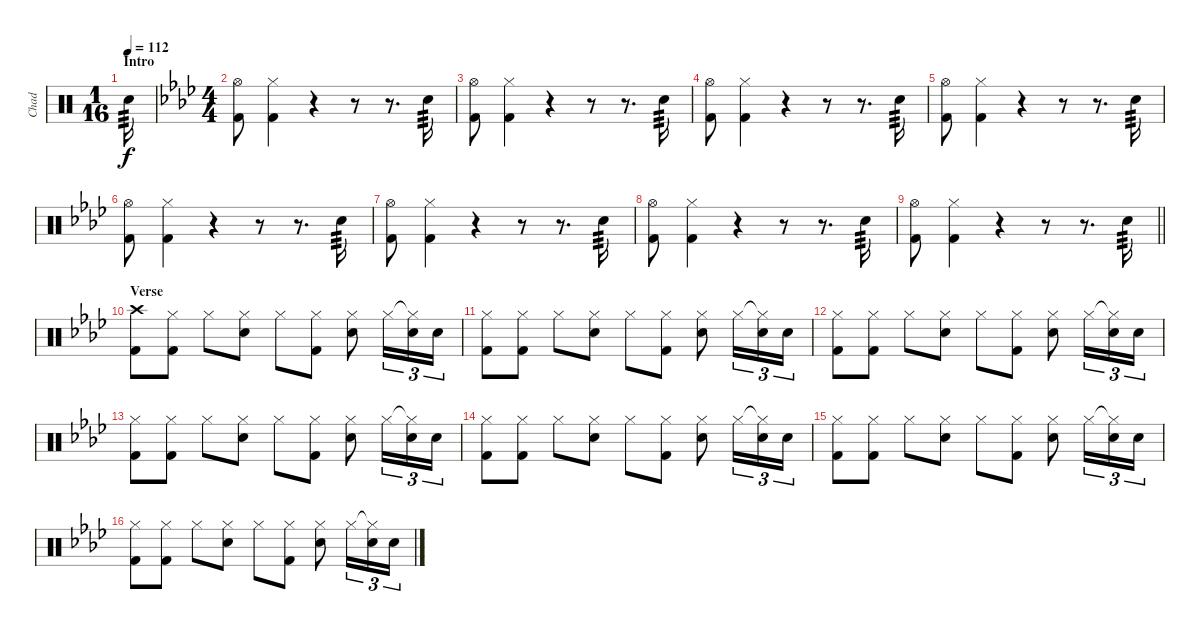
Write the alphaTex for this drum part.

\track ("Chad" "Chad") {instrument percussion}
\staff {score}
\articulation defaults
\ts (1 16)
\section ("" "Intro")
\tempo 112
\clef neutral
\ks c "Snare (hit) 2".16{tp 3 dy f}
|
\ts (4 4)
\ks ab
("Hi-Hat (open)" "Kick (hit) 2").8 ("Hi-Hat (closed)" "Kick (hit) 2").4 r.4 r.8 r.8{d} "Snare (hit) 2".16{tp 3} |
("Hi-Hat (open)" "Kick (hit) 2").8 ("Hi-Hat (closed)" "Kick (hit) 2").4 r.4 r.8 r.8{d} "Snare (hit) 2".16{tp 3} |
("Hi-Hat (open)" "Kick (hit) 2").8 ("Hi-Hat (closed)" "Kick (hit) 2").4 r.4 r.8 r.8{d} "Snare (hit) 2".16{tp 3} |
("Hi-Hat (open)" "Kick (hit) 2").8 ("Hi-Hat (closed)" "Kick (hit) 2").4 r.4 r.8 r.8{d} "Snare (hit) 2".16{tp 3} |
("Hi-Hat (open)" "Kick (hit) 2").8 ("Hi-Hat (closed)" "Kick (hit) 2").4 r.4 r.8 r.8{d} "Snare (hit) 2".16{tp 3} |
("Hi-Hat (open)" "Kick (hit) 2").8 ("Hi-Hat (closed)" "Kick (hit) 2").4 r.4 r.8 r.8{d} "Snare (hit) 2".16{tp 3} |
("Hi-Hat (open)" "Kick (hit) 2").8 ("Hi-Hat (closed)" "Kick (hit) 2").4 r.4 r.8 r.8{d} "Snare (hit) 2".16{tp 3} |
\barLineRight lightlight
("Hi-Hat (open)" "Kick (hit) 2").8 ("Hi-Hat (closed)" "Kick (hit) 2").4 r.4 r.8 r.8{d} "Snare (hit) 2".16{tp 3} |
\section ("" "Verse")
("Crash high (hit)" "Kick (hit) 2").8 ("Hi-Hat (closed)" "Kick (hit) 2").8 "Hi-Hat (closed)".8 ("Hi-Hat (closed)" "Snare (hit) 2").8 "Hi-Hat (closed)".8 ("Hi-Hat (closed)" "Kick (hit) 2").8 ("Hi-Hat (closed)" "Snare (hit) 2").8 "Hi-Hat (closed)".16{tu (3 2)} ("Hi-Hat (closed)"{t} "Snare (hit) 2").16{tu (3 2)} "Snare (hit) 2".16{tu (3 2)} |
("Hi-Hat (closed)" "Kick (hit) 2").8 ("Hi-Hat (closed)" "Kick (hit) 2").8 "Hi-Hat (closed)".8 ("Hi-Hat (closed)" "Snare (hit) 2").8 "Hi-Hat (closed)".8 ("Hi-Hat (closed)" "Kick (hit) 2").8 ("Hi-Hat (closed)" "Snare (hit) 2").8 "Hi-Hat (closed)".16{tu (3 2)} ("Hi-Hat (closed)"{t} "Snare (hit) 2").16{tu (3 2)} "Snare (hit) 2".16{tu (3 2)} |
("Hi-Hat (closed)" "Kick (hit) 2").8 ("Hi-Hat (closed)" "Kick (hit) 2").8 "Hi-Hat (closed)".8 ("Hi-Hat (closed)" "Snare (hit) 2").8 "Hi-Hat (closed)".8 ("Hi-Hat (closed)" "Kick (hit) 2").8 ("Hi-Hat (closed)" "Snare (hit) 2").8 "Hi-Hat (closed)".16{tu (3 2)} ("Hi-Hat (closed)"{t} "Snare (hit) 2").16{tu (3 2)} "Snare (hit) 2".16{tu (3 2)} |
("Hi-Hat (closed)" "Kick (hit) 2").8 ("Hi-Hat (closed)" "Kick (hit) 2").8 "Hi-Hat (closed)".8 ("Hi-Hat (closed)" "Snare (hit) 2").8 "Hi-Hat (closed)".8 ("Hi-Hat (closed)" "Kick (hit) 2").8 ("Hi-Hat (closed)" "Snare (hit) 2").8 "Hi-Hat (closed)".16{tu (3 2)} ("Hi-Hat (closed)"{t} "Snare (hit) 2").16{tu (3 2)} "Snare (hit) 2".16{tu (3 2)} |
("Hi-Hat (closed)" "Kick (hit) 2").8 ("Hi-Hat (closed)" "Kick (hit) 2").8 "Hi-Hat (closed)".8 ("Hi-Hat (closed)" "Snare (hit) 2").8 "Hi-Hat (closed)".8 ("Hi-Hat (closed)" "Kick (hit) 2").8 ("Hi-Hat (closed)" "Snare (hit) 2").8 "Hi-Hat (closed)".16{tu (3 2)} ("Hi-Hat (closed)"{t} "Snare (hit) 2").16{tu (3 2)} "Snare (hit) 2".16{tu (3 2)} |
("Hi-Hat (closed)" "Kick (hit) 2").8 ("Hi-Hat (closed)" "Kick (hit) 2").8 "Hi-Hat (closed)".8 ("Hi-Hat (closed)" "Snare (hit) 2").8 "Hi-Hat (closed)".8 ("Hi-Hat (closed)" "Kick (hit) 2").8 ("Hi-Hat (closed)" "Snare (hit) 2").8 "Hi-Hat (closed)".16{tu (3 2)} ("Hi-Hat (closed)"{t} "Snare (hit) 2").16{tu (3 2)} "Snare (hit) 2".16{tu (3 2)} |
("Hi-Hat (closed)" "Kick (hit) 2").8 ("Hi-Hat (closed)" "Kick (hit) 2").8 "Hi-Hat (closed)".8 ("Hi-Hat (closed)" "Snare (hit) 2").8 "Hi-Hat (closed)".8 ("Hi-Hat (closed)" "Kick (hit) 2").8 ("Hi-Hat (closed)" "Snare (hit) 2").8 "Hi-Hat (closed)".16{tu (3 2)} ("Hi-Hat (closed)"{t} "Snare (hit) 2").16{tu (3 2)} "Snare (hit) 2".16{tu (3 2)}
